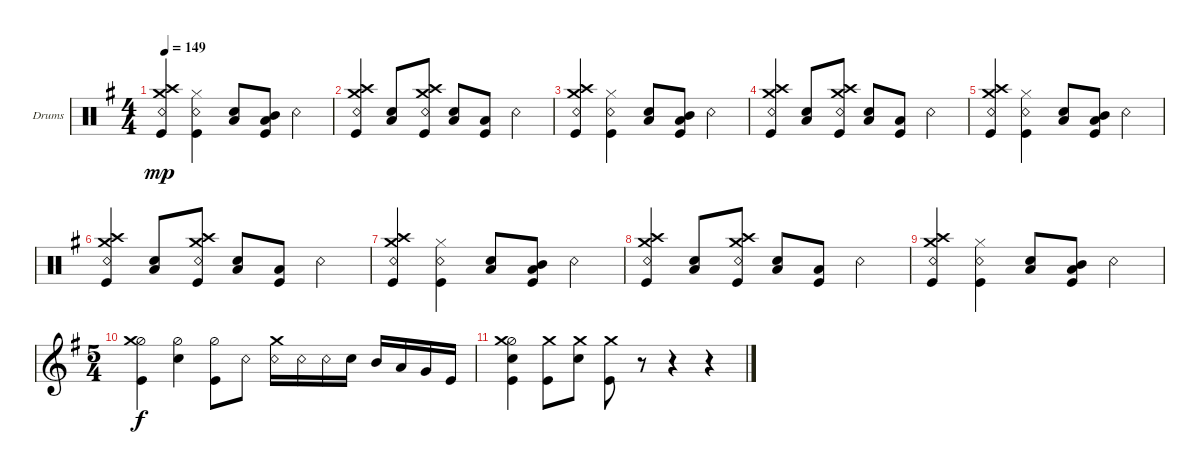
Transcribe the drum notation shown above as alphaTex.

\defaultSystemsLayout 4
\bracketExtendMode groupsimilarinstruments
\firstSystemTrackNameOrientation horizontal
\otherSystemsTrackNameOrientation horizontal
\track ("Drumkit" "Drums") {instrument percussion}
\staff {score}
\articulation defaults
\ts (4 4)
\tempo 149
\clef neutral
\ks eminor
("Kick (hit)" "Crash high (hit)" "Crash medium (hit)" "Snare (rim shot)").4{dy mp} ("Snare (rim shot)" "Hi-Hat (closed)" "Kick (hit)").4 ("Snare (hit) 2" "Low Tom (hit)").8 ("Kick (hit)" "Low Tom (hit)" "Mid Tom (hit)").8 "Snare (rim shot)".4 |
("Kick (hit)" "Crash high (hit)" "Crash medium (hit)" "Snare (rim shot)").4 ("Low Tom (hit)" "Snare (hit) 2").8 ("Kick (hit)" "Snare (rim shot)" "Crash medium (hit)" "Crash high (hit)").8 ("Snare (hit) 2" "Low Tom (hit)").8 ("Kick (hit)" "Low Tom (hit)").8 "Snare (rim shot)".4 |
("Kick (hit)" "Crash high (hit)" "Crash medium (hit)" "Snare (rim shot)").4 ("Snare (rim shot)" "Hi-Hat (closed)" "Kick (hit)").4 ("Snare (hit) 2" "Low Tom (hit)").8 ("Kick (hit)" "Low Tom (hit)" "Mid Tom (hit)").8 "Snare (rim shot)".4 |
("Kick (hit)" "Crash high (hit)" "Crash medium (hit)" "Snare (rim shot)").4 ("Low Tom (hit)" "Snare (hit) 2").8 ("Kick (hit)" "Snare (rim shot)" "Crash medium (hit)" "Crash high (hit)").8 ("Snare (hit) 2" "Low Tom (hit)").8 ("Kick (hit)" "Low Tom (hit)").8 "Snare (rim shot)".4 |
("Kick (hit)" "Crash high (hit)" "Crash medium (hit)" "Snare (rim shot)").4 ("Snare (rim shot)" "Hi-Hat (closed)" "Kick (hit)").4 ("Snare (hit) 2" "Low Tom (hit)").8 ("Kick (hit)" "Low Tom (hit)" "Mid Tom (hit)").8 "Snare (rim shot)".4 |
("Kick (hit)" "Crash high (hit)" "Crash medium (hit)" "Snare (rim shot)").4 ("Low Tom (hit)" "Snare (hit) 2").8 ("Kick (hit)" "Snare (rim shot)" "Crash medium (hit)" "Crash high (hit)").8 ("Snare (hit) 2" "Low Tom (hit)").8 ("Kick (hit)" "Low Tom (hit)").8 "Snare (rim shot)".4 |
("Kick (hit)" "Crash high (hit)" "Crash medium (hit)" "Snare (rim shot)").4 ("Snare (rim shot)" "Hi-Hat (closed)" "Kick (hit)").4 ("Snare (hit) 2" "Low Tom (hit)").8 ("Kick (hit)" "Low Tom (hit)" "Mid Tom (hit)").8 "Snare (rim shot)".4 |
("Kick (hit)" "Crash high (hit)" "Crash medium (hit)" "Snare (rim shot)").4 ("Low Tom (hit)" "Snare (hit) 2").8 ("Kick (hit)" "Snare (rim shot)" "Crash medium (hit)" "Crash high (hit)").8 ("Snare (hit) 2" "Low Tom (hit)").8 ("Kick (hit)" "Low Tom (hit)").8 "Snare (rim shot)".4 |
("Kick (hit)" "Crash high (hit)" "Crash medium (hit)" "Snare (rim shot)").4 ("Snare (rim shot)" "Hi-Hat (closed)" "Kick (hit)").4 ("Snare (hit) 2" "Low Tom (hit)").8 ("Kick (hit)" "Low Tom (hit)" "Mid Tom (hit)").8 "Snare (rim shot)".4 |
\ts (5 4)
\clef g2
("Kick (hit)" "Hi-Hat (half)" "Crash medium (hit)").4{dy f} ("Snare (hit) 2" "Hi-Hat (half)").4 ("Kick (hit)" "Hi-Hat (half)").8 "Snare (rim shot)".8 ("Snare (rim shot)" "Crash medium (hit)").16 "Snare (rim shot)".16 "Snare (rim shot)".16 "Snare (hit) 2".16 "Mid Tom (hit)".16 "Low Tom (hit)".16 "Very Low Tom (hit)".16 "Kick (hit)".16 |
("Kick (hit)" "Snare (hit) 2" "Hi-Hat (half)" "Crash medium (hit)").4 ("Kick (hit)" "Crash medium (hit)").8 ("Snare (hit) 2" "Crash medium (hit)").8 ("Kick (hit)" "Crash medium (hit)").8 r.8 r.4 r.4
